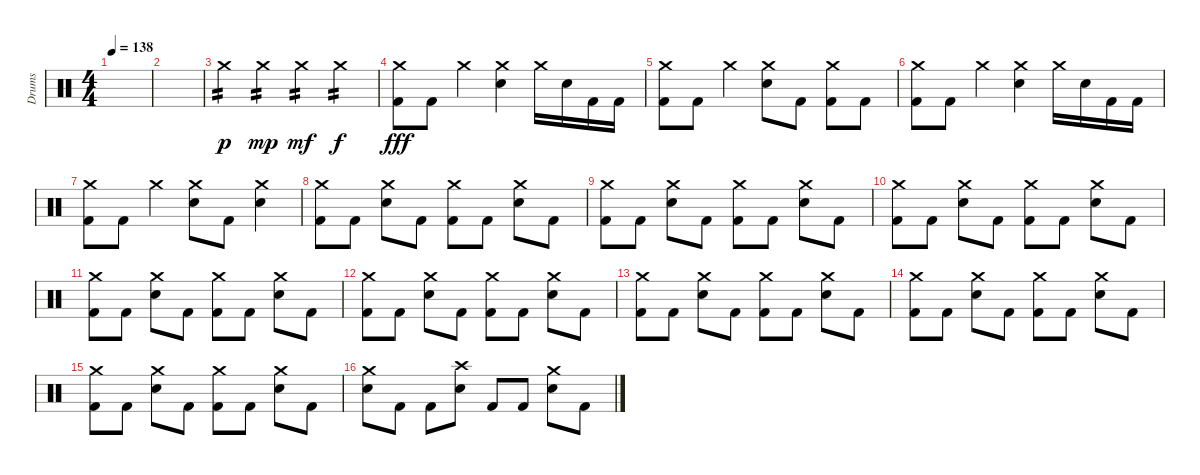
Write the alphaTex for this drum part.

\track ("Drums" "Drums") {instrument percussion}
\staff {score}
\articulation defaults
\ts (4 4)
\tempo 138
\clef neutral
\ks c
|
|
"Crash medium (hit)".4{tp 2 dy p} "Crash medium (hit)".4{tp 2 dy mp} "Crash medium (hit)".4{tp 2 dy mf} "Crash medium (hit)".4{tp 2 dy f} |
("Crash medium (hit)" "Kick (hit) 2").8{dy fff} "Kick (hit) 2".8 "Crash medium (hit)".4 ("Crash medium (hit)" "Electric Snare (hit)").4 "Crash medium (hit)".16 "Electric Snare (hit)".16 "Kick (hit) 2".16 "Kick (hit) 2".16 |
("Crash medium (hit)" "Kick (hit) 2").8 "Kick (hit) 2".8 "Crash medium (hit)".4 ("Crash medium (hit)" "Electric Snare (hit)").8 "Kick (hit) 2".8 ("Crash medium (hit)" "Kick (hit) 2").8 "Kick (hit) 2".8 |
("Crash medium (hit)" "Kick (hit) 2").8 "Kick (hit) 2".8 "Crash medium (hit)".4 ("Crash medium (hit)" "Electric Snare (hit)").4 "Crash medium (hit)".16 "Electric Snare (hit)".16 "Kick (hit) 2".16 "Kick (hit) 2".16 |
("Crash medium (hit)" "Kick (hit) 2").8 "Kick (hit) 2".8 "Crash medium (hit)".4 ("Crash medium (hit)" "Electric Snare (hit)").8 "Kick (hit) 2".8 ("Crash medium (hit)" "Electric Snare (hit)").4 |
("Crash medium (hit)" "Kick (hit) 2").8 "Kick (hit) 2".8 ("Crash medium (hit)" "Electric Snare (hit)").8 "Kick (hit) 2".8 ("Crash medium (hit)" "Kick (hit) 2").8 "Kick (hit) 2".8 ("Crash medium (hit)" "Electric Snare (hit)").8 "Kick (hit) 2".8 |
("Crash medium (hit)" "Kick (hit) 2").8 "Kick (hit) 2".8 ("Crash medium (hit)" "Electric Snare (hit)").8 "Kick (hit) 2".8 ("Crash medium (hit)" "Kick (hit) 2").8 "Kick (hit) 2".8 ("Crash medium (hit)" "Electric Snare (hit)").8 "Kick (hit) 2".8 |
("Crash medium (hit)" "Kick (hit) 2").8 "Kick (hit) 2".8 ("Crash medium (hit)" "Electric Snare (hit)").8 "Kick (hit) 2".8 ("Crash medium (hit)" "Kick (hit) 2").8 "Kick (hit) 2".8 ("Crash medium (hit)" "Electric Snare (hit)").8 "Kick (hit) 2".8 |
("Crash medium (hit)" "Kick (hit) 2").8 "Kick (hit) 2".8 ("Crash medium (hit)" "Electric Snare (hit)").8 "Kick (hit) 2".8 ("Crash medium (hit)" "Kick (hit) 2").8 "Kick (hit) 2".8 ("Crash medium (hit)" "Electric Snare (hit)").8 "Kick (hit) 2".8 |
("Crash medium (hit)" "Kick (hit) 2").8 "Kick (hit) 2".8 ("Crash medium (hit)" "Electric Snare (hit)").8 "Kick (hit) 2".8 ("Crash medium (hit)" "Kick (hit) 2").8 "Kick (hit) 2".8 ("Crash medium (hit)" "Electric Snare (hit)").8 "Kick (hit) 2".8 |
("Crash medium (hit)" "Kick (hit) 2").8 "Kick (hit) 2".8 ("Crash medium (hit)" "Electric Snare (hit)").8 "Kick (hit) 2".8 ("Crash medium (hit)" "Kick (hit) 2").8 "Kick (hit) 2".8 ("Crash medium (hit)" "Electric Snare (hit)").8 "Kick (hit) 2".8 |
("Crash medium (hit)" "Kick (hit) 2").8 "Kick (hit) 2".8 ("Crash medium (hit)" "Electric Snare (hit)").8 "Kick (hit) 2".8 ("Crash medium (hit)" "Kick (hit) 2").8 "Kick (hit) 2".8 ("Crash medium (hit)" "Electric Snare (hit)").8 "Kick (hit) 2".8 |
("Crash medium (hit)" "Kick (hit) 2").8 "Kick (hit) 2".8 ("Crash medium (hit)" "Electric Snare (hit)").8 "Kick (hit) 2".8 ("Crash medium (hit)" "Kick (hit) 2").8 "Kick (hit) 2".8 ("Crash medium (hit)" "Electric Snare (hit)").8 "Kick (hit) 2".8 |
("Crash medium (hit)" "Electric Snare (hit)").8 "Kick (hit) 2".8 "Kick (hit) 2".8 ("Crash high (hit)" "Electric Snare (hit)").8 "Kick (hit) 2".8 "Kick (hit) 2".8 ("Crash medium (hit)" "Electric Snare (hit)").8 "Kick (hit) 2".8
